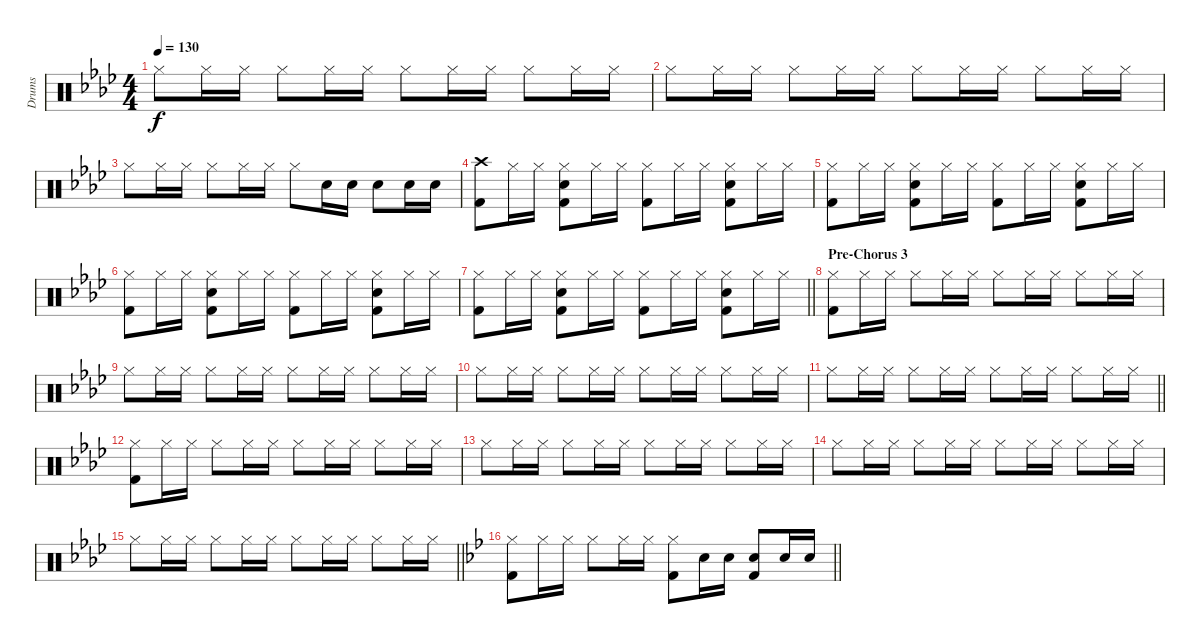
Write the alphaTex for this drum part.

\track ("Drums" "Drums") {instrument percussion}
\staff {score}
\articulation defaults
\ts (4 4)
\tempo 130
\clef neutral
\ks ab "Hi-Hat (closed)".8{dy f} "Hi-Hat (closed)".16 "Hi-Hat (closed)".16 "Hi-Hat (closed)".8 "Hi-Hat (closed)".16 "Hi-Hat (closed)".16 "Hi-Hat (closed)".8 "Hi-Hat (closed)".16 "Hi-Hat (closed)".16 "Hi-Hat (closed)".8 "Hi-Hat (closed)".16 "Hi-Hat (closed)".16
|
"Hi-Hat (closed)".8 "Hi-Hat (closed)".16 "Hi-Hat (closed)".16 "Hi-Hat (closed)".8 "Hi-Hat (closed)".16 "Hi-Hat (closed)".16 "Hi-Hat (closed)".8 "Hi-Hat (closed)".16 "Hi-Hat (closed)".16 "Hi-Hat (closed)".8 "Hi-Hat (closed)".16 "Hi-Hat (closed)".16 |
"Hi-Hat (closed)".8 "Hi-Hat (closed)".16 "Hi-Hat (closed)".16 "Hi-Hat (closed)".8 "Hi-Hat (closed)".16 "Hi-Hat (closed)".16 "Hi-Hat (closed)".8 "Snare (hit) 2".16 "Snare (hit) 2".16 "Snare (hit) 2".8 "Snare (hit) 2".16 "Snare (hit) 2".16 |
("Crash high (hit)" "Kick (hit) 2").8 "Hi-Hat (closed)".16 "Hi-Hat (closed)".16 ("Hi-Hat (closed)" "Snare (hit) 2" "Kick (hit) 2").8 "Hi-Hat (closed)".16 "Hi-Hat (closed)".16 ("Hi-Hat (closed)" "Kick (hit) 2").8 "Hi-Hat (closed)".16 "Hi-Hat (closed)".16 ("Hi-Hat (closed)" "Snare (hit) 2" "Kick (hit) 2").8 "Hi-Hat (closed)".16 "Hi-Hat (closed)".16 |
("Hi-Hat (closed)" "Kick (hit) 2").8 "Hi-Hat (closed)".16 "Hi-Hat (closed)".16 ("Hi-Hat (closed)" "Snare (hit) 2" "Kick (hit) 2").8 "Hi-Hat (closed)".16 "Hi-Hat (closed)".16 ("Hi-Hat (closed)" "Kick (hit) 2").8 "Hi-Hat (closed)".16 "Hi-Hat (closed)".16 ("Hi-Hat (closed)" "Snare (hit) 2" "Kick (hit) 2").8 "Hi-Hat (closed)".16 "Hi-Hat (closed)".16 |
("Hi-Hat (closed)" "Kick (hit) 2").8 "Hi-Hat (closed)".16 "Hi-Hat (closed)".16 ("Hi-Hat (closed)" "Snare (hit) 2" "Kick (hit) 2").8 "Hi-Hat (closed)".16 "Hi-Hat (closed)".16 ("Hi-Hat (closed)" "Kick (hit) 2").8 "Hi-Hat (closed)".16 "Hi-Hat (closed)".16 ("Hi-Hat (closed)" "Snare (hit) 2" "Kick (hit) 2").8 "Hi-Hat (closed)".16 "Hi-Hat (closed)".16 |
\barLineRight lightlight
("Hi-Hat (closed)" "Kick (hit) 2").8 "Hi-Hat (closed)".16 "Hi-Hat (closed)".16 ("Hi-Hat (closed)" "Snare (hit) 2" "Kick (hit) 2").8 "Hi-Hat (closed)".16 "Hi-Hat (closed)".16 ("Hi-Hat (closed)" "Kick (hit) 2").8 "Hi-Hat (closed)".16 "Hi-Hat (closed)".16 ("Hi-Hat (closed)" "Snare (hit) 2" "Kick (hit) 2").8 "Hi-Hat (closed)".16 "Hi-Hat (closed)".16 |
\section ("" "Pre-Chorus 3")
("Hi-Hat (closed)" "Kick (hit) 2").8 "Hi-Hat (closed)".16 "Hi-Hat (closed)".16 "Hi-Hat (closed)".8 "Hi-Hat (closed)".16 "Hi-Hat (closed)".16 "Hi-Hat (closed)".8 "Hi-Hat (closed)".16 "Hi-Hat (closed)".16 "Hi-Hat (closed)".8 "Hi-Hat (closed)".16 "Hi-Hat (closed)".16 |
"Hi-Hat (closed)".8 "Hi-Hat (closed)".16 "Hi-Hat (closed)".16 "Hi-Hat (closed)".8 "Hi-Hat (closed)".16 "Hi-Hat (closed)".16 "Hi-Hat (closed)".8 "Hi-Hat (closed)".16 "Hi-Hat (closed)".16 "Hi-Hat (closed)".8 "Hi-Hat (closed)".16 "Hi-Hat (closed)".16 |
"Hi-Hat (closed)".8 "Hi-Hat (closed)".16 "Hi-Hat (closed)".16 "Hi-Hat (closed)".8 "Hi-Hat (closed)".16 "Hi-Hat (closed)".16 "Hi-Hat (closed)".8 "Hi-Hat (closed)".16 "Hi-Hat (closed)".16 "Hi-Hat (closed)".8 "Hi-Hat (closed)".16 "Hi-Hat (closed)".16 |
\barLineRight lightlight "Hi-Hat (closed)".8 "Hi-Hat (closed)".16 "Hi-Hat (closed)".16 "Hi-Hat (closed)".8 "Hi-Hat (closed)".16 "Hi-Hat (closed)".16 "Hi-Hat (closed)".8 "Hi-Hat (closed)".16 "Hi-Hat (closed)".16 "Hi-Hat (closed)".8 "Hi-Hat (closed)".16 "Hi-Hat (closed)".16
|
("Hi-Hat (closed)" "Kick (hit) 2").8 "Hi-Hat (closed)".16 "Hi-Hat (closed)".16 "Hi-Hat (closed)".8 "Hi-Hat (closed)".16 "Hi-Hat (closed)".16 "Hi-Hat (closed)".8 "Hi-Hat (closed)".16 "Hi-Hat (closed)".16 "Hi-Hat (closed)".8 "Hi-Hat (closed)".16 "Hi-Hat (closed)".16 |
"Hi-Hat (closed)".8 "Hi-Hat (closed)".16 "Hi-Hat (closed)".16 "Hi-Hat (closed)".8 "Hi-Hat (closed)".16 "Hi-Hat (closed)".16 "Hi-Hat (closed)".8 "Hi-Hat (closed)".16 "Hi-Hat (closed)".16 "Hi-Hat (closed)".8 "Hi-Hat (closed)".16 "Hi-Hat (closed)".16 |
"Hi-Hat (closed)".8 "Hi-Hat (closed)".16 "Hi-Hat (closed)".16 "Hi-Hat (closed)".8 "Hi-Hat (closed)".16 "Hi-Hat (closed)".16 "Hi-Hat (closed)".8 "Hi-Hat (closed)".16 "Hi-Hat (closed)".16 "Hi-Hat (closed)".8 "Hi-Hat (closed)".16 "Hi-Hat (closed)".16 |
\barLineRight lightlight "Hi-Hat (closed)".8 "Hi-Hat (closed)".16 "Hi-Hat (closed)".16 "Hi-Hat (closed)".8 "Hi-Hat (closed)".16 "Hi-Hat (closed)".16 "Hi-Hat (closed)".8 "Hi-Hat (closed)".16 "Hi-Hat (closed)".16 "Hi-Hat (closed)".8 "Hi-Hat (closed)".16 "Hi-Hat (closed)".16
|
\barLineRight lightlight
\ks bb
("Hi-Hat (closed)" "Kick (hit) 2").8 "Hi-Hat (closed)".16 "Hi-Hat (closed)".16 "Hi-Hat (closed)".8 "Hi-Hat (closed)".16 "Hi-Hat (closed)".16 ("Hi-Hat (closed)" "Kick (hit) 2").8 "Snare (hit) 2".16 "Snare (hit) 2".16 ("Snare (hit) 2" "Kick (hit) 2").8 "Snare (hit) 2".16 "Snare (hit) 2".16
